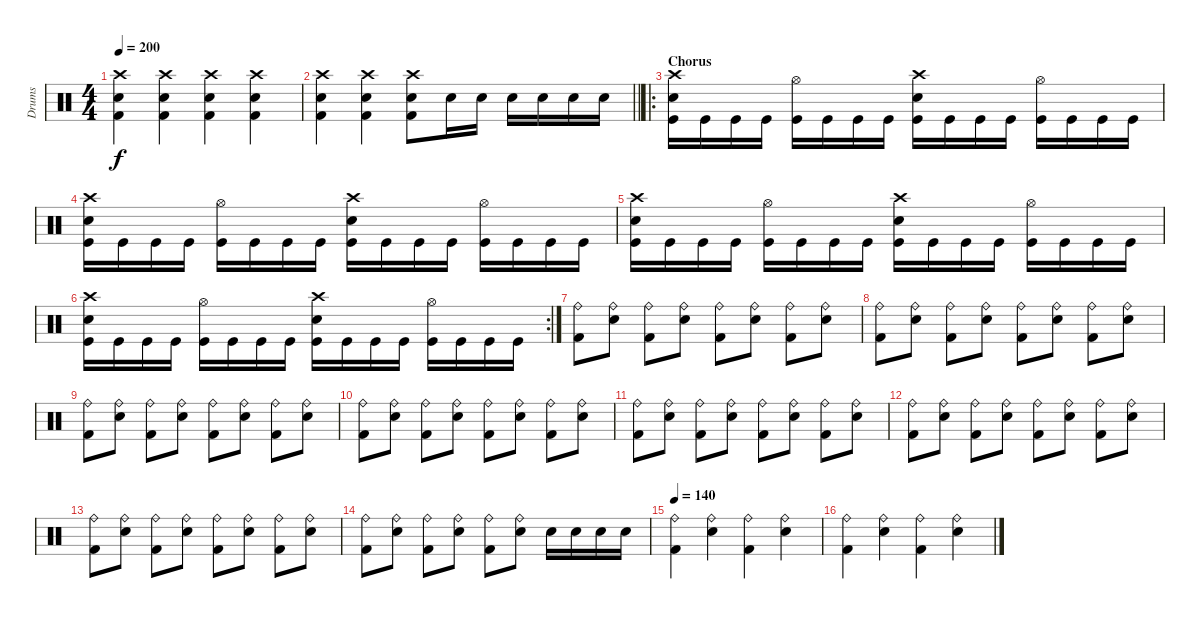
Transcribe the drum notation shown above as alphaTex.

\track ("Drums" "Drums") {instrument percussion}
\staff {score}
\articulation defaults
\ts (4 4)
\tempo 200
\clef neutral
\ks c
("Crash high (hit)" "Electric Snare (hit)" "Kick (hit) 2").4{dy f} ("Crash high (hit)" "Electric Snare (hit)" "Kick (hit) 2").4 ("Crash high (hit)" "Electric Snare (hit)" "Kick (hit) 2").4 ("Crash high (hit)" "Electric Snare (hit)" "Kick (hit) 2").4 |
\barLineRight lightlight
("Crash high (hit)" "Electric Snare (hit)" "Kick (hit) 2").4 ("Crash high (hit)" "Electric Snare (hit)" "Kick (hit) 2").4 ("Crash high (hit)" "Electric Snare (hit)" "Kick (hit) 2").8 "Snare (hit) 2".16 "Snare (hit) 2".16 "Snare (hit) 2".16 "Snare (hit) 2".16 "Snare (hit) 2".16 "Snare (hit) 2".16 |
\ro
\section ("" "Chorus")
("Crash high (hit)" "Snare (hit) 2" "Kick (hit)").16 "Kick (hit)".16 "Kick (hit)".16 "Kick (hit)".16 ("Hi-Hat (open)" "Kick (hit)").16 "Kick (hit)".16 "Kick (hit)".16 "Kick (hit)".16 ("Crash high (hit)" "Snare (hit) 2" "Kick (hit)").16 "Kick (hit)".16 "Kick (hit)".16 "Kick (hit)".16 ("Hi-Hat (open)" "Kick (hit)").16 "Kick (hit)".16 "Kick (hit)".16 "Kick (hit)".16 |
("Crash high (hit)" "Snare (hit) 2" "Kick (hit)").16 "Kick (hit)".16 "Kick (hit)".16 "Kick (hit)".16 ("Hi-Hat (open)" "Kick (hit)").16 "Kick (hit)".16 "Kick (hit)".16 "Kick (hit)".16 ("Crash high (hit)" "Snare (hit) 2" "Kick (hit)").16 "Kick (hit)".16 "Kick (hit)".16 "Kick (hit)".16 ("Hi-Hat (open)" "Kick (hit)").16 "Kick (hit)".16 "Kick (hit)".16 "Kick (hit)".16 |
("Crash high (hit)" "Snare (hit) 2" "Kick (hit)").16 "Kick (hit)".16 "Kick (hit)".16 "Kick (hit)".16 ("Hi-Hat (open)" "Kick (hit)").16 "Kick (hit)".16 "Kick (hit)".16 "Kick (hit)".16 ("Crash high (hit)" "Snare (hit) 2" "Kick (hit)").16 "Kick (hit)".16 "Kick (hit)".16 "Kick (hit)".16 ("Hi-Hat (open)" "Kick (hit)").16 "Kick (hit)".16 "Kick (hit)".16 "Kick (hit)".16 |
\rc 2
("Crash high (hit)" "Snare (hit) 2" "Kick (hit)").16 "Kick (hit)".16 "Kick (hit)".16 "Kick (hit)".16 ("Hi-Hat (open)" "Kick (hit)").16 "Kick (hit)".16 "Kick (hit)".16 "Kick (hit)".16 ("Crash high (hit)" "Snare (hit) 2" "Kick (hit)").16 "Kick (hit)".16 "Kick (hit)".16 "Kick (hit)".16 ("Hi-Hat (open)" "Kick (hit)").16 "Kick (hit)".16 "Kick (hit)".16 "Kick (hit)".16 |
("Ride (bell)" "Kick (hit) 2").8 ("Ride (bell)" "Snare (hit) 2").8 ("Ride (bell)" "Kick (hit) 2").8 ("Ride (bell)" "Snare (hit) 2").8 ("Ride (bell)" "Kick (hit) 2").8 ("Ride (bell)" "Snare (hit) 2").8 ("Ride (bell)" "Kick (hit) 2").8 ("Ride (bell)" "Snare (hit) 2").8 |
("Ride (bell)" "Kick (hit) 2").8 ("Ride (bell)" "Snare (hit) 2").8 ("Ride (bell)" "Kick (hit) 2").8 ("Ride (bell)" "Snare (hit) 2").8 ("Ride (bell)" "Kick (hit) 2").8 ("Ride (bell)" "Snare (hit) 2").8 ("Ride (bell)" "Kick (hit) 2").8 ("Ride (bell)" "Snare (hit) 2").8 |
("Ride (bell)" "Kick (hit) 2").8 ("Ride (bell)" "Snare (hit) 2").8 ("Ride (bell)" "Kick (hit) 2").8 ("Ride (bell)" "Snare (hit) 2").8 ("Ride (bell)" "Kick (hit) 2").8 ("Ride (bell)" "Snare (hit) 2").8 ("Ride (bell)" "Kick (hit) 2").8 ("Ride (bell)" "Snare (hit) 2").8 |
("Ride (bell)" "Kick (hit) 2").8 ("Ride (bell)" "Snare (hit) 2").8 ("Ride (bell)" "Kick (hit) 2").8 ("Ride (bell)" "Snare (hit) 2").8 ("Ride (bell)" "Kick (hit) 2").8 ("Ride (bell)" "Snare (hit) 2").8 ("Ride (bell)" "Kick (hit) 2").8 ("Ride (bell)" "Snare (hit) 2").8 |
("Ride (bell)" "Kick (hit) 2").8 ("Ride (bell)" "Snare (hit) 2").8 ("Ride (bell)" "Kick (hit) 2").8 ("Ride (bell)" "Snare (hit) 2").8 ("Ride (bell)" "Kick (hit) 2").8 ("Ride (bell)" "Snare (hit) 2").8 ("Ride (bell)" "Kick (hit) 2").8 ("Ride (bell)" "Snare (hit) 2").8 |
("Ride (bell)" "Kick (hit) 2").8 ("Ride (bell)" "Snare (hit) 2").8 ("Ride (bell)" "Kick (hit) 2").8 ("Ride (bell)" "Snare (hit) 2").8 ("Ride (bell)" "Kick (hit) 2").8 ("Ride (bell)" "Snare (hit) 2").8 ("Ride (bell)" "Kick (hit) 2").8 ("Ride (bell)" "Snare (hit) 2").8 |
("Ride (bell)" "Kick (hit) 2").8 ("Ride (bell)" "Snare (hit) 2").8 ("Ride (bell)" "Kick (hit) 2").8 ("Ride (bell)" "Snare (hit) 2").8 ("Ride (bell)" "Kick (hit) 2").8 ("Ride (bell)" "Snare (hit) 2").8 ("Ride (bell)" "Kick (hit) 2").8 ("Ride (bell)" "Snare (hit) 2").8 |
("Ride (bell)" "Kick (hit) 2").8 ("Ride (bell)" "Snare (hit) 2").8 ("Ride (bell)" "Kick (hit) 2").8 ("Ride (bell)" "Snare (hit) 2").8 ("Ride (bell)" "Kick (hit) 2").8 ("Ride (bell)" "Snare (hit) 2").8 "Snare (hit) 2".16 "Snare (hit) 2".16 "Snare (hit) 2".16 "Snare (hit) 2".16 |
\tempo 140
("Ride (bell)" "Kick (hit) 2").4 ("Ride (bell)" "Snare (hit) 2").4 ("Ride (bell)" "Kick (hit) 2").4 ("Ride (bell)" "Snare (hit) 2").4 |
("Ride (bell)" "Kick (hit) 2").4 ("Ride (bell)" "Snare (hit) 2").4 ("Ride (bell)" "Kick (hit) 2").4 ("Ride (bell)" "Snare (hit) 2").4
